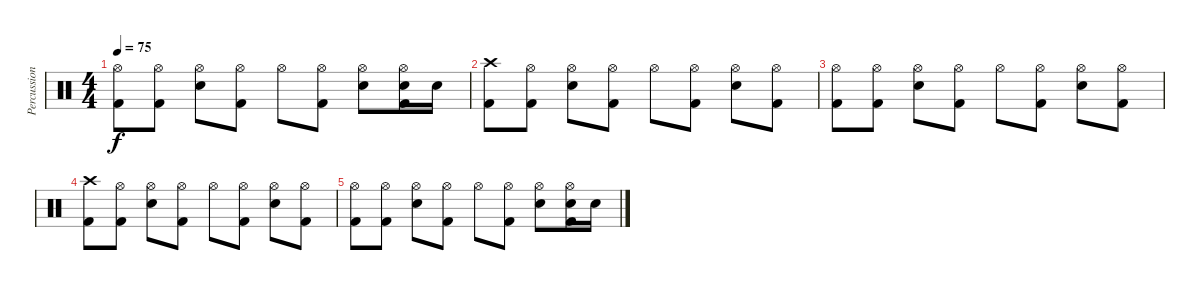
\track ("Percussion" "Percussion") {instrument percussion}
\staff {score}
\articulation defaults
\ts (4 4)
\tempo 75
\clef neutral
\ks c
("Hi-Hat (open)" "Kick (hit) 2").8{dy f} ("Hi-Hat (open)" "Kick (hit) 2").8 ("Hi-Hat (open)" "Electric Snare (hit)").8 ("Hi-Hat (open)" "Kick (hit) 2").8 "Hi-Hat (open)".8 ("Hi-Hat (open)" "Kick (hit) 2").8 ("Hi-Hat (open)" "Electric Snare (hit)").8 ("Hi-Hat (open)" "Electric Snare (hit)" "Kick (hit) 2").16 "Electric Snare (hit)".16 |
("Crash high (hit)" "Kick (hit) 2").8 ("Hi-Hat (open)" "Kick (hit) 2").8 ("Hi-Hat (open)" "Electric Snare (hit)").8 ("Hi-Hat (open)" "Kick (hit) 2").8 "Hi-Hat (open)".8 ("Hi-Hat (open)" "Kick (hit) 2").8 ("Hi-Hat (open)" "Electric Snare (hit)").8 ("Hi-Hat (open)" "Kick (hit) 2").8 |
("Hi-Hat (open)" "Kick (hit) 2").8 ("Hi-Hat (open)" "Kick (hit) 2").8 ("Hi-Hat (open)" "Electric Snare (hit)").8 ("Hi-Hat (open)" "Kick (hit) 2").8 "Hi-Hat (open)".8 ("Hi-Hat (open)" "Kick (hit) 2").8 ("Hi-Hat (open)" "Electric Snare (hit)").8 ("Hi-Hat (open)" "Kick (hit) 2").8 |
("Crash high (hit)" "Kick (hit) 2").8 ("Hi-Hat (open)" "Kick (hit) 2").8 ("Hi-Hat (open)" "Electric Snare (hit)").8 ("Hi-Hat (open)" "Kick (hit) 2").8 "Hi-Hat (open)".8 ("Hi-Hat (open)" "Kick (hit) 2").8 ("Hi-Hat (open)" "Electric Snare (hit)").8 ("Hi-Hat (open)" "Kick (hit) 2").8 |
("Hi-Hat (open)" "Kick (hit) 2").8 ("Hi-Hat (open)" "Kick (hit) 2").8 ("Hi-Hat (open)" "Electric Snare (hit)").8 ("Hi-Hat (open)" "Kick (hit) 2").8 "Hi-Hat (open)".8 ("Hi-Hat (open)" "Kick (hit) 2").8 ("Hi-Hat (open)" "Electric Snare (hit)").8 ("Hi-Hat (open)" "Electric Snare (hit)" "Kick (hit) 2").16 "Electric Snare (hit)".16
